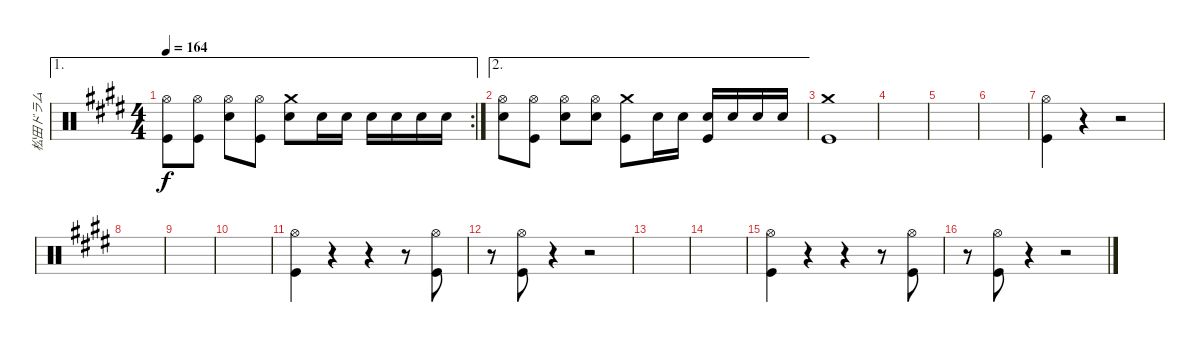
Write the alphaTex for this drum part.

\track ("松田ドラム" "松田ドラム") {instrument percussion}
\staff {score}
\articulation defaults
\ae 1
\rc 2
\ts (4 4)
\tempo 164
\clef neutral
\ks e
("Hi-Hat (open)" "Kick (hit)").8{dy f} ("Hi-Hat (open)" "Kick (hit)").8 ("Hi-Hat (open)" "Snare (hit) 2").8 ("Hi-Hat (open)" "Kick (hit)").8 ("Crash medium (hit)" "Snare (hit) 2").8 "Snare (hit) 2".16 "Snare (hit) 2".16 "Snare (hit) 2".16 "Snare (hit) 2".16 "Snare (hit) 2".16 "Snare (hit) 2".16 |
\ae 2
("Hi-Hat (open)" "Snare (hit) 2").8 ("Hi-Hat (open)" "Kick (hit)").8 ("Hi-Hat (open)" "Snare (hit) 2").8 ("Hi-Hat (open)" "Snare (hit) 2").8 ("Crash medium (hit)" "Kick (hit)").8 "Snare (hit) 2".16 "Snare (hit) 2".16 ("Snare (hit) 2" "Kick (hit)").16 "Snare (hit) 2".16 "Snare (hit) 2".16 "Snare (hit) 2".16 |
("Crash medium (hit)" "Kick (hit)").1 |
|
|
|
("Hi-Hat (open)" "Kick (hit)").4 r.4 r.2 |
|
|
|
("Hi-Hat (open)" "Kick (hit)").4 r.4 r.4 r.8 ("Hi-Hat (open)" "Kick (hit)").8 |
r.8 ("Hi-Hat (open)" "Kick (hit)").8 r.4 r.2 |
|
|
("Hi-Hat (open)" "Kick (hit)").4 r.4 r.4 r.8 ("Hi-Hat (open)" "Kick (hit)").8 |
r.8 ("Hi-Hat (open)" "Kick (hit)").8 r.4 r.2
